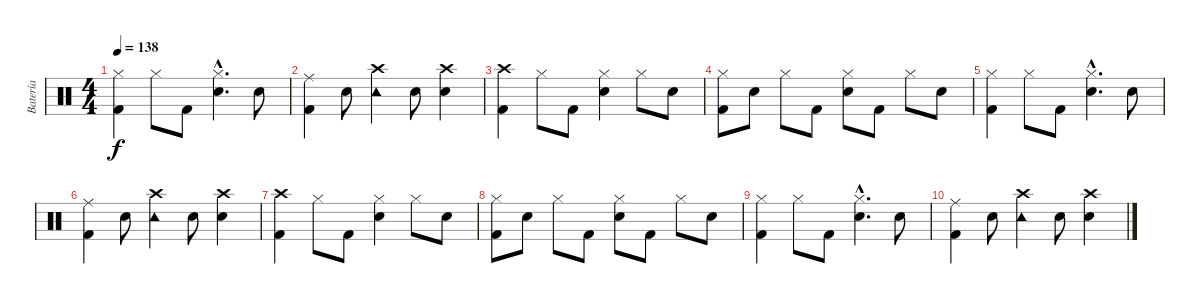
\track ("Batería" "Batería") {instrument percussion}
\staff {score}
\articulation defaults
\ts (4 4)
\tempo 138
\clef neutral
\ks c
("Kick (hit) 2" "Hi-Hat (closed)").4{dy f} "Hi-Hat (closed)".8 "Kick (hit) 2".8 ("Electric Snare (hit)"{hac} "Hi-Hat (closed)"{hac}).4{d} "Electric Snare (hit)".8 |
("Kick (hit) 2" "Ride (middle)").4 "Electric Snare (hit)".8 ("Crash high (hit)" "Tambourine (hit)").4 "Electric Snare (hit)".8 ("Electric Snare (hit)" "Crash high (hit)").4 |
("Kick (hit) 2" "Crash high (hit)").4 "Hi-Hat (closed)".8 "Kick (hit) 2".8 ("Electric Snare (hit)" "Hi-Hat (closed)").4 "Hi-Hat (closed)".8 "Electric Snare (hit)".8 |
("Kick (hit) 2" "Hi-Hat (closed)").8 "Electric Snare (hit)".8 "Hi-Hat (closed)".8 "Kick (hit) 2".8 ("Electric Snare (hit)" "Hi-Hat (closed)").8 "Kick (hit) 2".8 "Hi-Hat (closed)".8 "Electric Snare (hit)".8 |
("Kick (hit) 2" "Hi-Hat (closed)").4 "Hi-Hat (closed)".8 "Kick (hit) 2".8 ("Electric Snare (hit)"{hac} "Hi-Hat (closed)"{hac}).4{d} "Electric Snare (hit)".8 |
("Kick (hit) 2" "Ride (middle)").4 "Electric Snare (hit)".8 ("Crash high (hit)" "Tambourine (hit)").4 "Electric Snare (hit)".8 ("Electric Snare (hit)" "Crash high (hit)").4 |
("Kick (hit) 2" "Crash high (hit)").4 "Hi-Hat (closed)".8 "Kick (hit) 2".8 ("Electric Snare (hit)" "Hi-Hat (closed)").4 "Hi-Hat (closed)".8 "Electric Snare (hit)".8 |
("Kick (hit) 2" "Hi-Hat (closed)").8 "Electric Snare (hit)".8 "Hi-Hat (closed)".8 "Kick (hit) 2".8 ("Electric Snare (hit)" "Hi-Hat (closed)").8 "Kick (hit) 2".8 "Hi-Hat (closed)".8 "Electric Snare (hit)".8 |
("Kick (hit) 2" "Hi-Hat (closed)").4 "Hi-Hat (closed)".8 "Kick (hit) 2".8 ("Electric Snare (hit)"{hac} "Hi-Hat (closed)"{hac}).4{d} "Electric Snare (hit)".8 |
("Kick (hit) 2" "Ride (middle)").4 "Electric Snare (hit)".8 ("Crash high (hit)" "Tambourine (hit)").4 "Electric Snare (hit)".8 ("Electric Snare (hit)" "Crash high (hit)").4
